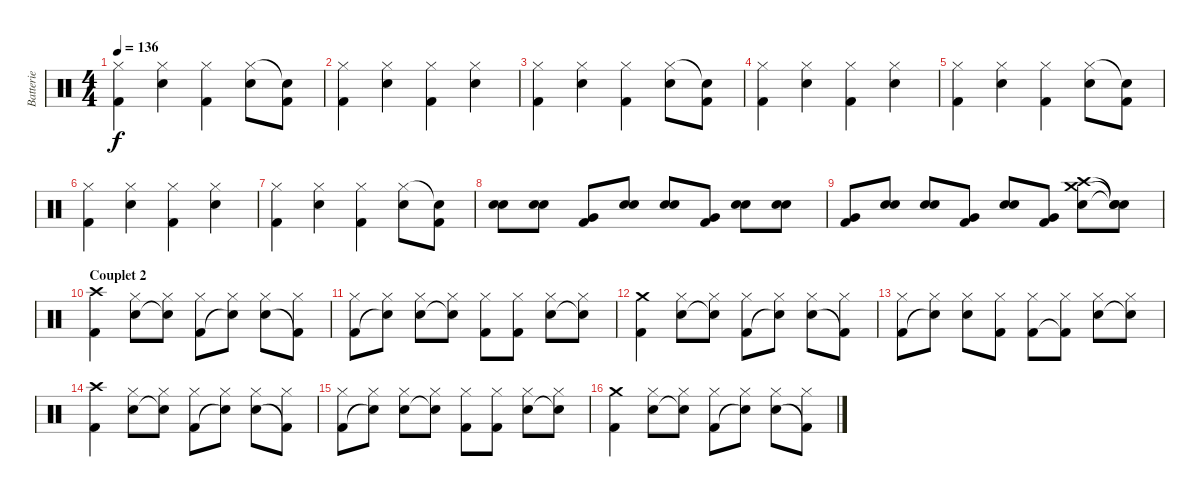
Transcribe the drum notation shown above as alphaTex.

\track ("Batterie" "Batterie") {instrument percussion}
\staff {score}
\articulation defaults
\ts (4 4)
\tempo 136
\clef neutral
\ks c
("Hi-Hat (closed)" "Kick (hit) 2").4{dy f} ("Hi-Hat (closed)" "Snare (hit) 2").4 ("Hi-Hat (closed)" "Kick (hit) 2").4 ("Hi-Hat (closed)" "Snare (hit) 2").8 ("Snare (hit)"{t} "Kick (hit) 2").8 |
("Hi-Hat (closed)" "Kick (hit) 2").4 ("Hi-Hat (closed)" "Snare (hit) 2").4 ("Hi-Hat (closed)" "Kick (hit) 2").4 ("Hi-Hat (closed)" "Snare (hit) 2").4 |
("Hi-Hat (closed)" "Kick (hit) 2").4 ("Hi-Hat (closed)" "Snare (hit) 2").4 ("Hi-Hat (closed)" "Kick (hit) 2").4 ("Hi-Hat (closed)" "Snare (hit) 2").8 ("Snare (hit)"{t} "Kick (hit) 2").8 |
("Hi-Hat (closed)" "Kick (hit) 2").4 ("Hi-Hat (closed)" "Snare (hit) 2").4 ("Hi-Hat (closed)" "Kick (hit) 2").4 ("Hi-Hat (closed)" "Snare (hit) 2").4 |
("Hi-Hat (closed)" "Kick (hit) 2").4 ("Hi-Hat (closed)" "Snare (hit) 2").4 ("Hi-Hat (closed)" "Kick (hit) 2").4 ("Hi-Hat (closed)" "Snare (hit) 2").8 ("Snare (hit)"{t} "Kick (hit) 2").8 |
("Hi-Hat (closed)" "Kick (hit) 2").4 ("Hi-Hat (closed)" "Snare (hit) 2").4 ("Hi-Hat (closed)" "Kick (hit) 2").4 ("Hi-Hat (closed)" "Snare (hit) 2").4 |
("Hi-Hat (closed)" "Kick (hit) 2").4 ("Hi-Hat (closed)" "Snare (hit) 2").4 ("Hi-Hat (closed)" "Kick (hit) 2").4 ("Hi-Hat (closed)" "Snare (hit) 2").8 ("Snare (hit)"{t} "Kick (hit) 2").8 |
("Snare (hit) 2" "Snare (hit) 2").8 ("Snare (hit) 2" "Snare (hit) 2").8 ("Very Low Tom (hit)" "Kick (hit) 2").8 ("Snare (hit) 2" "Snare (hit) 2").8 ("Snare (hit) 2" "Snare (hit) 2").8 ("Very Low Tom (hit)" "Kick (hit) 2").8 ("Snare (hit) 2" "Snare (hit) 2").8 ("Snare (hit) 2" "Snare (hit) 2").8 |
("Very Low Tom (hit)" "Kick (hit) 2").8 ("Snare (hit) 2" "Snare (hit) 2").8 ("Snare (hit) 2" "Snare (hit) 2").8 ("Very Low Tom (hit)" "Kick (hit) 2").8 ("Snare (hit) 2" "Snare (hit) 2").8 ("Very Low Tom (hit)" "Kick (hit) 2").8 ("Crash high (hit)" "Crash medium (hit)" "Snare (hit) 2").8 ("Snare (hit)"{t} "Snare (hit)"{t} "Snare (hit)"{t}).8 |
\section ("" "Couplet 2")
("Crash high (hit)" "Kick (hit) 2").4 ("Hi-Hat (closed)" "Snare (hit) 2").8 ("Hi-Hat (closed)" "Snare (hit)"{t}).8 ("Hi-Hat (closed)" "Kick (hit) 2").8 ("Hi-Hat (closed)" "Snare (hit)"{t}).8 ("Hi-Hat (closed)" "Snare (hit) 2").8 ("Hi-Hat (closed)" "Kick (hit) 2"{t}).8 |
("Hi-Hat (closed)" "Kick (hit) 2").8 ("Hi-Hat (closed)" "Snare (hit)"{t}).8 ("Hi-Hat (closed)" "Snare (hit) 2").8 ("Hi-Hat (closed)" "Snare (hit)"{t}).8 ("Hi-Hat (closed)" "Kick (hit) 2").8 ("Hi-Hat (closed)" "Kick (hit) 2").8 ("Hi-Hat (closed)" "Snare (hit) 2").8 ("Hi-Hat (closed)" "Snare (hit)"{t}).8 |
("Crash medium (hit)" "Kick (hit) 2").4 ("Hi-Hat (closed)" "Snare (hit) 2").8 ("Hi-Hat (closed)" "Snare (hit)"{t}).8 ("Hi-Hat (closed)" "Kick (hit) 2").8 ("Hi-Hat (closed)" "Snare (hit)"{t}).8 ("Hi-Hat (closed)" "Snare (hit) 2").8 ("Hi-Hat (closed)" "Kick (hit) 2"{t}).8 |
("Hi-Hat (closed)" "Kick (hit) 2").8 ("Hi-Hat (closed)" "Snare (hit)"{t}).8 ("Hi-Hat (closed)" "Snare (hit) 2").8 ("Hi-Hat (closed)" "Kick (hit) 2").8 ("Hi-Hat (closed)" "Kick (hit) 2").8 ("Hi-Hat (closed)" "Kick (hit) 2"{t}).8 ("Hi-Hat (closed)" "Snare (hit) 2").8 ("Hi-Hat (closed)" "Snare (hit)"{t}).8 |
("Crash high (hit)" "Kick (hit) 2").4 ("Hi-Hat (closed)" "Snare (hit) 2").8 ("Hi-Hat (closed)" "Snare (hit)"{t}).8 ("Hi-Hat (closed)" "Kick (hit) 2").8 ("Hi-Hat (closed)" "Snare (hit)"{t}).8 ("Hi-Hat (closed)" "Snare (hit) 2").8 ("Hi-Hat (closed)" "Kick (hit) 2"{t}).8 |
("Hi-Hat (closed)" "Kick (hit) 2").8 ("Hi-Hat (closed)" "Snare (hit)"{t}).8 ("Hi-Hat (closed)" "Snare (hit) 2").8 ("Hi-Hat (closed)" "Snare (hit)"{t}).8 ("Hi-Hat (closed)" "Kick (hit) 2").8 ("Hi-Hat (closed)" "Kick (hit) 2").8 ("Hi-Hat (closed)" "Snare (hit) 2").8 ("Hi-Hat (closed)" "Snare (hit)"{t}).8 |
("Crash medium (hit)" "Kick (hit) 2").4 ("Hi-Hat (closed)" "Snare (hit) 2").8 ("Hi-Hat (closed)" "Snare (hit)"{t}).8 ("Hi-Hat (closed)" "Kick (hit) 2").8 ("Hi-Hat (closed)" "Snare (hit)"{t}).8 ("Hi-Hat (closed)" "Snare (hit) 2").8 ("Hi-Hat (closed)" "Kick (hit) 2"{t}).8
